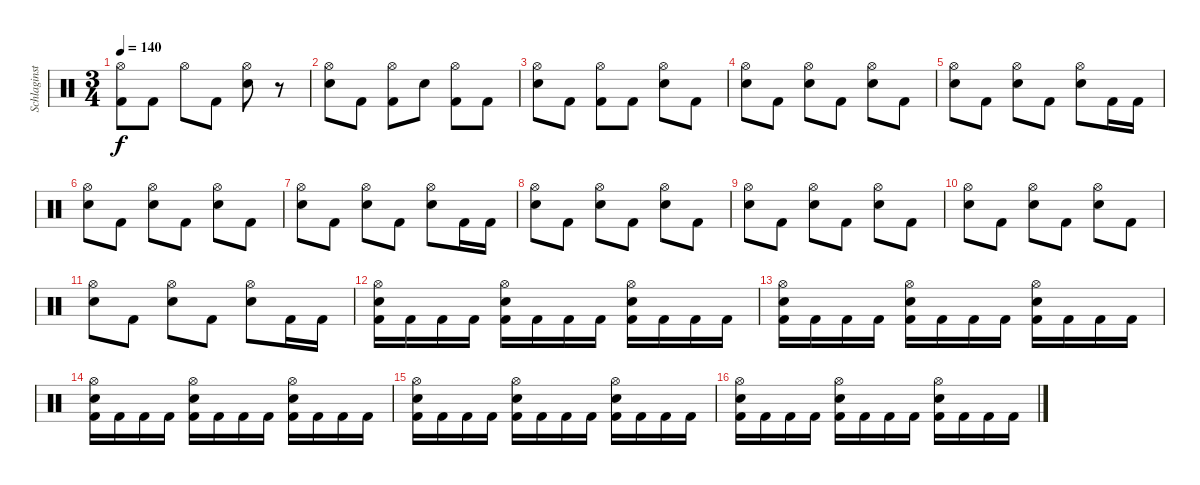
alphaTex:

\track ("Schlaginstrumente - Auswahl" "Schlaginst") {instrument percussion}
\staff {score}
\articulation defaults
\ts (3 4)
\tempo 140
\clef neutral
\ks c
("Hi-Hat (open)" "Kick (hit) 2").8{dy f} "Kick (hit) 2".8 "Hi-Hat (open)".8 "Kick (hit) 2".8 ("Hi-Hat (open)" "Electric Snare (hit)").8 r.8 |
("Hi-Hat (open)" "Electric Snare (hit)").8 "Kick (hit) 2".8 ("Hi-Hat (open)" "Kick (hit) 2").8 "Electric Snare (hit)".8 ("Hi-Hat (open)" "Kick (hit) 2").8 "Kick (hit) 2".8 |
("Hi-Hat (open)" "Electric Snare (hit)").8 "Kick (hit) 2".8 ("Hi-Hat (open)" "Kick (hit) 2").8 "Kick (hit) 2".8 ("Hi-Hat (open)" "Electric Snare (hit)").8 "Kick (hit) 2".8 |
("Hi-Hat (open)" "Electric Snare (hit)").8 "Kick (hit) 2".8 ("Hi-Hat (open)" "Electric Snare (hit)").8 "Kick (hit) 2".8 ("Hi-Hat (open)" "Electric Snare (hit)").8 "Kick (hit) 2".8 |
("Hi-Hat (open)" "Electric Snare (hit)").8 "Kick (hit) 2".8 ("Hi-Hat (open)" "Electric Snare (hit)").8 "Kick (hit) 2".8 ("Hi-Hat (open)" "Electric Snare (hit)").8 "Kick (hit) 2".16 "Kick (hit) 2".16 |
("Hi-Hat (open)" "Electric Snare (hit)").8 "Kick (hit) 2".8 ("Hi-Hat (open)" "Electric Snare (hit)").8 "Kick (hit) 2".8 ("Hi-Hat (open)" "Electric Snare (hit)").8 "Kick (hit) 2".8 |
("Hi-Hat (open)" "Electric Snare (hit)").8 "Kick (hit) 2".8 ("Hi-Hat (open)" "Electric Snare (hit)").8 "Kick (hit) 2".8 ("Hi-Hat (open)" "Electric Snare (hit)").8 "Kick (hit) 2".16 "Kick (hit) 2".16 |
("Hi-Hat (open)" "Electric Snare (hit)").8 "Kick (hit) 2".8 ("Hi-Hat (open)" "Electric Snare (hit)").8 "Kick (hit) 2".8 ("Hi-Hat (open)" "Electric Snare (hit)").8 "Kick (hit) 2".8 |
("Hi-Hat (open)" "Electric Snare (hit)").8 "Kick (hit) 2".8 ("Hi-Hat (open)" "Electric Snare (hit)").8 "Kick (hit) 2".8 ("Hi-Hat (open)" "Electric Snare (hit)").8 "Kick (hit) 2".8 |
("Hi-Hat (open)" "Electric Snare (hit)").8 "Kick (hit) 2".8 ("Hi-Hat (open)" "Electric Snare (hit)").8 "Kick (hit) 2".8 ("Hi-Hat (open)" "Electric Snare (hit)").8 "Kick (hit) 2".8 |
("Hi-Hat (open)" "Electric Snare (hit)").8 "Kick (hit) 2".8 ("Hi-Hat (open)" "Electric Snare (hit)").8 "Kick (hit) 2".8 ("Hi-Hat (open)" "Electric Snare (hit)").8 "Kick (hit) 2".16 "Kick (hit) 2".16 |
("Hi-Hat (open)" "Electric Snare (hit)" "Kick (hit) 2").16 "Kick (hit) 2".16 "Kick (hit) 2".16 "Kick (hit) 2".16 ("Hi-Hat (open)" "Electric Snare (hit)" "Kick (hit) 2").16 "Kick (hit) 2".16 "Kick (hit) 2".16 "Kick (hit) 2".16 ("Hi-Hat (open)" "Electric Snare (hit)" "Kick (hit) 2").16 "Kick (hit) 2".16 "Kick (hit) 2".16 "Kick (hit) 2".16 |
("Hi-Hat (open)" "Electric Snare (hit)" "Kick (hit) 2").16 "Kick (hit) 2".16 "Kick (hit) 2".16 "Kick (hit) 2".16 ("Hi-Hat (open)" "Electric Snare (hit)" "Kick (hit) 2").16 "Kick (hit) 2".16 "Kick (hit) 2".16 "Kick (hit) 2".16 ("Hi-Hat (open)" "Electric Snare (hit)" "Kick (hit) 2").16 "Kick (hit) 2".16 "Kick (hit) 2".16 "Kick (hit) 2".16 |
("Hi-Hat (open)" "Electric Snare (hit)" "Kick (hit) 2").16 "Kick (hit) 2".16 "Kick (hit) 2".16 "Kick (hit) 2".16 ("Hi-Hat (open)" "Electric Snare (hit)" "Kick (hit) 2").16 "Kick (hit) 2".16 "Kick (hit) 2".16 "Kick (hit) 2".16 ("Hi-Hat (open)" "Electric Snare (hit)" "Kick (hit) 2").16 "Kick (hit) 2".16 "Kick (hit) 2".16 "Kick (hit) 2".16 |
("Hi-Hat (open)" "Electric Snare (hit)" "Kick (hit) 2").16 "Kick (hit) 2".16 "Kick (hit) 2".16 "Kick (hit) 2".16 ("Hi-Hat (open)" "Electric Snare (hit)" "Kick (hit) 2").16 "Kick (hit) 2".16 "Kick (hit) 2".16 "Kick (hit) 2".16 ("Hi-Hat (open)" "Electric Snare (hit)" "Kick (hit) 2").16 "Kick (hit) 2".16 "Kick (hit) 2".16 "Kick (hit) 2".16 |
("Hi-Hat (open)" "Electric Snare (hit)" "Kick (hit) 2").16 "Kick (hit) 2".16 "Kick (hit) 2".16 "Kick (hit) 2".16 ("Hi-Hat (open)" "Electric Snare (hit)" "Kick (hit) 2").16 "Kick (hit) 2".16 "Kick (hit) 2".16 "Kick (hit) 2".16 ("Hi-Hat (open)" "Electric Snare (hit)" "Kick (hit) 2").16 "Kick (hit) 2".16 "Kick (hit) 2".16 "Kick (hit) 2".16
